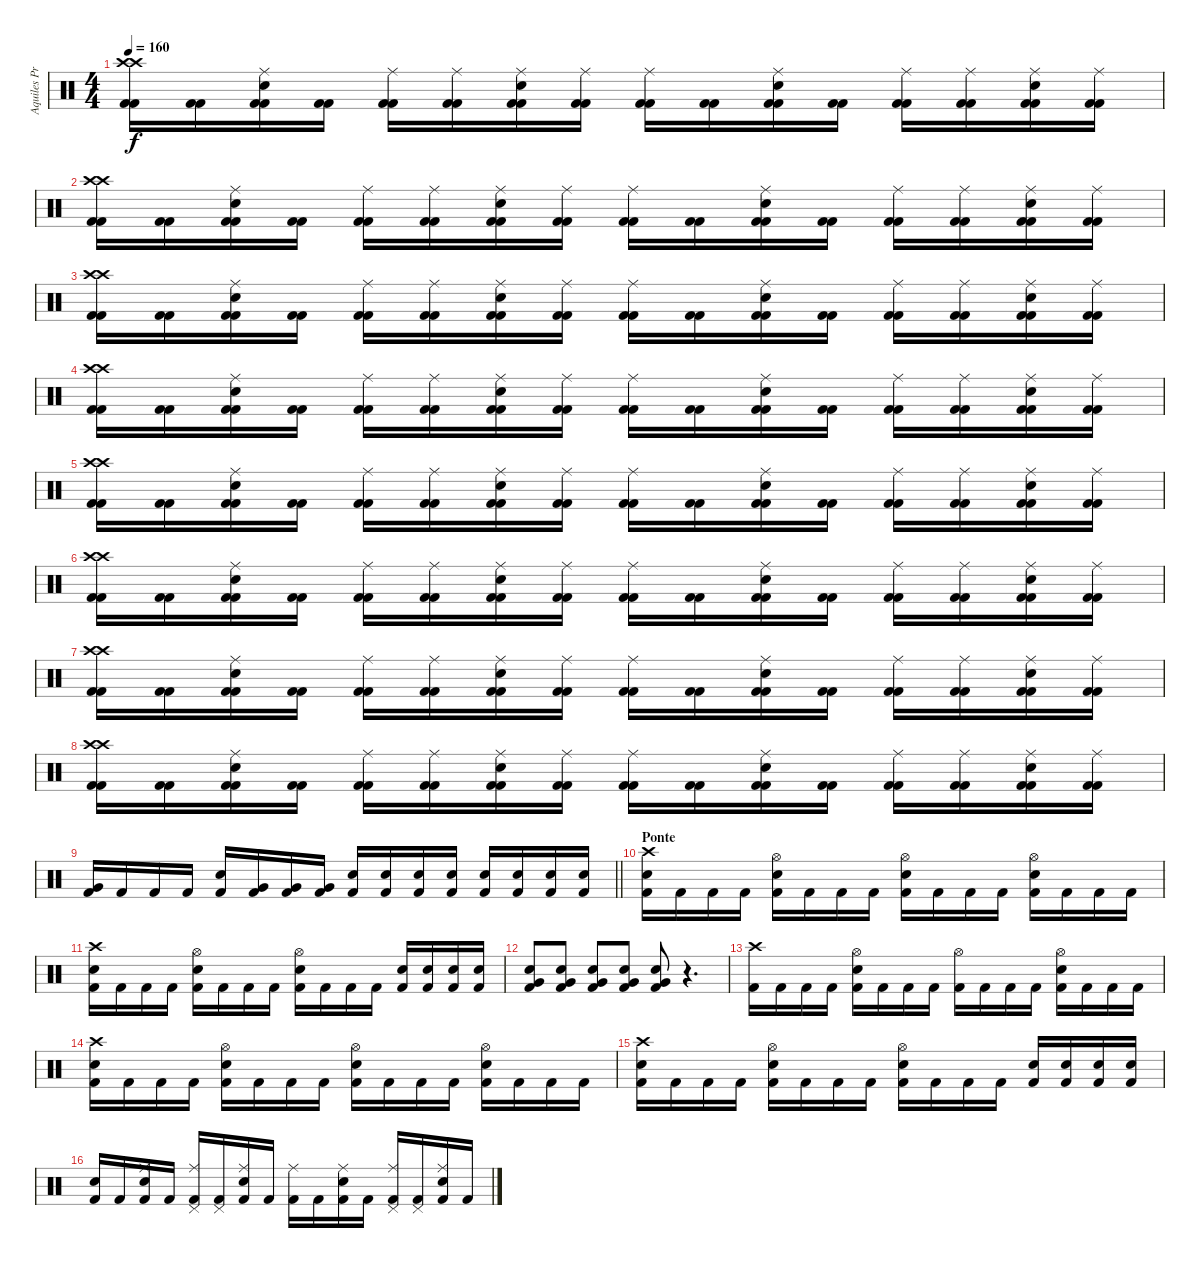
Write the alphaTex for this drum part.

\track ("Aquiles Priester" "Aquiles Pr") {instrument percussion}
\staff {score}
\articulation defaults
\ts (4 4)
\tempo 160
\clef neutral
\ks c
("Crash high (hit)" "Crash high (hit)" "Kick (hit) 2" "Kick (hit) 2").16{dy f} ("Kick (hit) 2" "Kick (hit) 2").16 ("Ride (middle)" "Snare (hit) 2" "Kick (hit) 2" "Kick (hit) 2").16 ("Kick (hit) 2" "Kick (hit) 2").16 ("Ride (middle)" "Kick (hit) 2" "Kick (hit) 2").16 ("Ride (middle)" "Kick (hit) 2" "Kick (hit) 2").16 ("Ride (middle)" "Snare (hit) 2" "Kick (hit) 2" "Kick (hit) 2").16 ("Ride (middle)" "Kick (hit) 2" "Kick (hit) 2").16 ("Ride (middle)" "Kick (hit) 2" "Kick (hit) 2").16 ("Kick (hit) 2" "Kick (hit) 2").16 ("Ride (middle)" "Snare (hit) 2" "Kick (hit) 2" "Kick (hit) 2").16 ("Kick (hit) 2" "Kick (hit) 2").16 ("Ride (middle)" "Kick (hit) 2" "Kick (hit) 2").16 ("Ride (middle)" "Kick (hit) 2" "Kick (hit) 2").16 ("Ride (middle)" "Snare (hit) 2" "Kick (hit) 2" "Kick (hit) 2").16 ("Ride (middle)" "Kick (hit) 2" "Kick (hit) 2").16 |
("Crash high (hit)" "Crash high (hit)" "Kick (hit) 2" "Kick (hit) 2").16 ("Kick (hit) 2" "Kick (hit) 2").16 ("Ride (middle)" "Snare (hit) 2" "Kick (hit) 2" "Kick (hit) 2").16 ("Kick (hit) 2" "Kick (hit) 2").16 ("Ride (middle)" "Kick (hit) 2" "Kick (hit) 2").16 ("Ride (middle)" "Kick (hit) 2" "Kick (hit) 2").16 ("Ride (middle)" "Snare (hit) 2" "Kick (hit) 2" "Kick (hit) 2").16 ("Ride (middle)" "Kick (hit) 2" "Kick (hit) 2").16 ("Ride (middle)" "Kick (hit) 2" "Kick (hit) 2").16 ("Kick (hit) 2" "Kick (hit) 2").16 ("Ride (middle)" "Snare (hit) 2" "Kick (hit) 2" "Kick (hit) 2").16 ("Kick (hit) 2" "Kick (hit) 2").16 ("Ride (middle)" "Kick (hit) 2" "Kick (hit) 2").16 ("Ride (middle)" "Kick (hit) 2" "Kick (hit) 2").16 ("Ride (middle)" "Snare (hit) 2" "Kick (hit) 2" "Kick (hit) 2").16 ("Ride (middle)" "Kick (hit) 2" "Kick (hit) 2").16 |
("Crash high (hit)" "Crash high (hit)" "Kick (hit) 2" "Kick (hit) 2").16 ("Kick (hit) 2" "Kick (hit) 2").16 ("Ride (middle)" "Snare (hit) 2" "Kick (hit) 2" "Kick (hit) 2").16 ("Kick (hit) 2" "Kick (hit) 2").16 ("Ride (middle)" "Kick (hit) 2" "Kick (hit) 2").16 ("Ride (middle)" "Kick (hit) 2" "Kick (hit) 2").16 ("Ride (middle)" "Snare (hit) 2" "Kick (hit) 2" "Kick (hit) 2").16 ("Ride (middle)" "Kick (hit) 2" "Kick (hit) 2").16 ("Ride (middle)" "Kick (hit) 2" "Kick (hit) 2").16 ("Kick (hit) 2" "Kick (hit) 2").16 ("Ride (middle)" "Snare (hit) 2" "Kick (hit) 2" "Kick (hit) 2").16 ("Kick (hit) 2" "Kick (hit) 2").16 ("Ride (middle)" "Kick (hit) 2" "Kick (hit) 2").16 ("Ride (middle)" "Kick (hit) 2" "Kick (hit) 2").16 ("Ride (middle)" "Snare (hit) 2" "Kick (hit) 2" "Kick (hit) 2").16 ("Ride (middle)" "Kick (hit) 2" "Kick (hit) 2").16 |
("Crash high (hit)" "Crash high (hit)" "Kick (hit) 2" "Kick (hit) 2").16 ("Kick (hit) 2" "Kick (hit) 2").16 ("Ride (middle)" "Snare (hit) 2" "Kick (hit) 2" "Kick (hit) 2").16 ("Kick (hit) 2" "Kick (hit) 2").16 ("Ride (middle)" "Kick (hit) 2" "Kick (hit) 2").16 ("Ride (middle)" "Kick (hit) 2" "Kick (hit) 2").16 ("Ride (middle)" "Snare (hit) 2" "Kick (hit) 2" "Kick (hit) 2").16 ("Ride (middle)" "Kick (hit) 2" "Kick (hit) 2").16 ("Ride (middle)" "Kick (hit) 2" "Kick (hit) 2").16 ("Kick (hit) 2" "Kick (hit) 2").16 ("Ride (middle)" "Snare (hit) 2" "Kick (hit) 2" "Kick (hit) 2").16 ("Kick (hit) 2" "Kick (hit) 2").16 ("Ride (middle)" "Kick (hit) 2" "Kick (hit) 2").16 ("Ride (middle)" "Kick (hit) 2" "Kick (hit) 2").16 ("Ride (middle)" "Snare (hit) 2" "Kick (hit) 2" "Kick (hit) 2").16 ("Ride (middle)" "Kick (hit) 2" "Kick (hit) 2").16 |
("Crash high (hit)" "Crash high (hit)" "Kick (hit) 2" "Kick (hit) 2").16 ("Kick (hit) 2" "Kick (hit) 2").16 ("Ride (middle)" "Snare (hit) 2" "Kick (hit) 2" "Kick (hit) 2").16 ("Kick (hit) 2" "Kick (hit) 2").16 ("Ride (middle)" "Kick (hit) 2" "Kick (hit) 2").16 ("Ride (middle)" "Kick (hit) 2" "Kick (hit) 2").16 ("Ride (middle)" "Snare (hit) 2" "Kick (hit) 2" "Kick (hit) 2").16 ("Ride (middle)" "Kick (hit) 2" "Kick (hit) 2").16 ("Ride (middle)" "Kick (hit) 2" "Kick (hit) 2").16 ("Kick (hit) 2" "Kick (hit) 2").16 ("Ride (middle)" "Snare (hit) 2" "Kick (hit) 2" "Kick (hit) 2").16 ("Kick (hit) 2" "Kick (hit) 2").16 ("Ride (middle)" "Kick (hit) 2" "Kick (hit) 2").16 ("Ride (middle)" "Kick (hit) 2" "Kick (hit) 2").16 ("Ride (middle)" "Snare (hit) 2" "Kick (hit) 2" "Kick (hit) 2").16 ("Ride (middle)" "Kick (hit) 2" "Kick (hit) 2").16 |
("Crash high (hit)" "Crash high (hit)" "Kick (hit) 2" "Kick (hit) 2").16 ("Kick (hit) 2" "Kick (hit) 2").16 ("Ride (middle)" "Snare (hit) 2" "Kick (hit) 2" "Kick (hit) 2").16 ("Kick (hit) 2" "Kick (hit) 2").16 ("Ride (middle)" "Kick (hit) 2" "Kick (hit) 2").16 ("Ride (middle)" "Kick (hit) 2" "Kick (hit) 2").16 ("Ride (middle)" "Snare (hit) 2" "Kick (hit) 2" "Kick (hit) 2").16 ("Ride (middle)" "Kick (hit) 2" "Kick (hit) 2").16 ("Ride (middle)" "Kick (hit) 2" "Kick (hit) 2").16 ("Kick (hit) 2" "Kick (hit) 2").16 ("Ride (middle)" "Snare (hit) 2" "Kick (hit) 2" "Kick (hit) 2").16 ("Kick (hit) 2" "Kick (hit) 2").16 ("Ride (middle)" "Kick (hit) 2" "Kick (hit) 2").16 ("Ride (middle)" "Kick (hit) 2" "Kick (hit) 2").16 ("Ride (middle)" "Snare (hit) 2" "Kick (hit) 2" "Kick (hit) 2").16 ("Ride (middle)" "Kick (hit) 2" "Kick (hit) 2").16 |
("Crash high (hit)" "Crash high (hit)" "Kick (hit) 2" "Kick (hit) 2").16 ("Kick (hit) 2" "Kick (hit) 2").16 ("Ride (middle)" "Snare (hit) 2" "Kick (hit) 2" "Kick (hit) 2").16 ("Kick (hit) 2" "Kick (hit) 2").16 ("Ride (middle)" "Kick (hit) 2" "Kick (hit) 2").16 ("Ride (middle)" "Kick (hit) 2" "Kick (hit) 2").16 ("Ride (middle)" "Snare (hit) 2" "Kick (hit) 2" "Kick (hit) 2").16 ("Ride (middle)" "Kick (hit) 2" "Kick (hit) 2").16 ("Ride (middle)" "Kick (hit) 2" "Kick (hit) 2").16 ("Kick (hit) 2" "Kick (hit) 2").16 ("Ride (middle)" "Snare (hit) 2" "Kick (hit) 2" "Kick (hit) 2").16 ("Kick (hit) 2" "Kick (hit) 2").16 ("Ride (middle)" "Kick (hit) 2" "Kick (hit) 2").16 ("Ride (middle)" "Kick (hit) 2" "Kick (hit) 2").16 ("Ride (middle)" "Snare (hit) 2" "Kick (hit) 2" "Kick (hit) 2").16 ("Ride (middle)" "Kick (hit) 2" "Kick (hit) 2").16 |
("Crash high (hit)" "Crash high (hit)" "Kick (hit) 2" "Kick (hit) 2").16 ("Kick (hit) 2" "Kick (hit) 2").16 ("Ride (middle)" "Snare (hit) 2" "Kick (hit) 2" "Kick (hit) 2").16 ("Kick (hit) 2" "Kick (hit) 2").16 ("Ride (middle)" "Kick (hit) 2" "Kick (hit) 2").16 ("Ride (middle)" "Kick (hit) 2" "Kick (hit) 2").16 ("Ride (middle)" "Snare (hit) 2" "Kick (hit) 2" "Kick (hit) 2").16 ("Ride (middle)" "Kick (hit) 2" "Kick (hit) 2").16 ("Ride (middle)" "Kick (hit) 2" "Kick (hit) 2").16 ("Kick (hit) 2" "Kick (hit) 2").16 ("Ride (middle)" "Snare (hit) 2" "Kick (hit) 2" "Kick (hit) 2").16 ("Kick (hit) 2" "Kick (hit) 2").16 ("Ride (middle)" "Kick (hit) 2" "Kick (hit) 2").16 ("Ride (middle)" "Kick (hit) 2" "Kick (hit) 2").16 ("Ride (middle)" "Snare (hit) 2" "Kick (hit) 2" "Kick (hit) 2").16 ("Ride (middle)" "Kick (hit) 2" "Kick (hit) 2").16 |
\barLineRight lightlight
("Very Low Tom (hit)" "Kick (hit) 2").16 "Kick (hit) 2".16 "Kick (hit) 2".16 "Kick (hit) 2".16 ("Electric Snare (hit)" "Kick (hit) 2").16 ("Very Low Tom (hit)" "Kick (hit) 2").16 ("Very Low Tom (hit)" "Kick (hit) 2").16 ("Very Low Tom (hit)" "Kick (hit) 2").16 ("Electric Snare (hit)" "Kick (hit) 2").16 ("Electric Snare (hit)" "Kick (hit) 2").16 ("Electric Snare (hit)" "Kick (hit) 2").16 ("Electric Snare (hit)" "Kick (hit) 2").16 ("Electric Snare (hit)" "Kick (hit) 2").16 ("Electric Snare (hit)" "Kick (hit) 2").16 ("Electric Snare (hit)" "Kick (hit) 2").16 ("Electric Snare (hit)" "Kick (hit) 2").16 |
\section ("" "Ponte")
("Crash high (hit)" "Electric Snare (hit)" "Kick (hit) 2").16 "Kick (hit) 2".16 "Kick (hit) 2".16 "Kick (hit) 2".16 ("Hi-Hat (open)" "Electric Snare (hit)" "Kick (hit) 2").16 "Kick (hit) 2".16 "Kick (hit) 2".16 "Kick (hit) 2".16 ("Hi-Hat (open)" "Electric Snare (hit)" "Kick (hit) 2").16 "Kick (hit) 2".16 "Kick (hit) 2".16 "Kick (hit) 2".16 ("Hi-Hat (open)" "Electric Snare (hit)" "Kick (hit) 2").16 "Kick (hit) 2".16 "Kick (hit) 2".16 "Kick (hit) 2".16 |
("Crash high (hit)" "Electric Snare (hit)" "Kick (hit) 2").16 "Kick (hit) 2".16 "Kick (hit) 2".16 "Kick (hit) 2".16 ("Hi-Hat (open)" "Electric Snare (hit)" "Kick (hit) 2").16 "Kick (hit) 2".16 "Kick (hit) 2".16 "Kick (hit) 2".16 ("Hi-Hat (open)" "Electric Snare (hit)" "Kick (hit) 2").16 "Kick (hit) 2".16 "Kick (hit) 2".16 "Kick (hit) 2".16 ("Electric Snare (hit)" "Kick (hit) 2").16 ("Electric Snare (hit)" "Kick (hit) 2").16 ("Electric Snare (hit)" "Kick (hit) 2").16 ("Electric Snare (hit)" "Kick (hit) 2").16 |
("Very Low Tom (hit)" "Electric Snare (hit)" "Kick (hit) 2").8 ("Very Low Tom (hit)" "Electric Snare (hit)" "Kick (hit) 2").8 ("Very Low Tom (hit)" "Electric Snare (hit)" "Kick (hit) 2").8 ("Very Low Tom (hit)" "Electric Snare (hit)" "Kick (hit) 2").8 ("Very Low Tom (hit)" "Electric Snare (hit)" "Kick (hit) 2").8 r.4{d} |
("Crash high (hit)" "Kick (hit) 2").16 "Kick (hit) 2".16 "Kick (hit) 2".16 "Kick (hit) 2".16 ("Hi-Hat (open)" "Electric Snare (hit)" "Kick (hit) 2").16 "Kick (hit) 2".16 "Kick (hit) 2".16 "Kick (hit) 2".16 ("Hi-Hat (open)" "Kick (hit) 2").16 "Kick (hit) 2".16 "Kick (hit) 2".16 "Kick (hit) 2".16 ("Hi-Hat (open)" "Electric Snare (hit)" "Kick (hit) 2").16 "Kick (hit) 2".16 "Kick (hit) 2".16 "Kick (hit) 2".16 |
("Crash high (hit)" "Electric Snare (hit)" "Kick (hit) 2").16 "Kick (hit) 2".16 "Kick (hit) 2".16 "Kick (hit) 2".16 ("Hi-Hat (open)" "Electric Snare (hit)" "Kick (hit) 2").16 "Kick (hit) 2".16 "Kick (hit) 2".16 "Kick (hit) 2".16 ("Hi-Hat (open)" "Electric Snare (hit)" "Kick (hit) 2").16 "Kick (hit) 2".16 "Kick (hit) 2".16 "Kick (hit) 2".16 ("Hi-Hat (open)" "Electric Snare (hit)" "Kick (hit) 2").16 "Kick (hit) 2".16 "Kick (hit) 2".16 "Kick (hit) 2".16 |
("Crash high (hit)" "Electric Snare (hit)" "Kick (hit) 2").16 "Kick (hit) 2".16 "Kick (hit) 2".16 "Kick (hit) 2".16 ("Hi-Hat (open)" "Electric Snare (hit)" "Kick (hit) 2").16 "Kick (hit) 2".16 "Kick (hit) 2".16 "Kick (hit) 2".16 ("Hi-Hat (open)" "Electric Snare (hit)" "Kick (hit) 2").16 "Kick (hit) 2".16 "Kick (hit) 2".16 "Kick (hit) 2".16 ("Electric Snare (hit)" "Kick (hit) 2").16 ("Electric Snare (hit)" "Kick (hit) 2").16 ("Electric Snare (hit)" "Kick (hit) 2").16 ("Electric Snare (hit)" "Kick (hit) 2").16 |
("Electric Snare (hit)" "Kick (hit) 2").16 "Kick (hit) 2".16 ("Ride (middle)" "Electric Snare (hit)" "Kick (hit) 2").16 "Kick (hit) 2".16 ("Ride (middle)" "Pedal Hi-Hat (hit)" "Kick (hit) 2").16 ("Pedal Hi-Hat (hit)" "Kick (hit) 2").16 ("Ride (middle)" "Electric Snare (hit)" "Kick (hit) 2").16 "Kick (hit) 2".16 ("Ride (middle)" "Kick (hit) 2").16 "Kick (hit) 2".16 ("Ride (middle)" "Electric Snare (hit)" "Kick (hit) 2").16 "Kick (hit) 2".16 ("Ride (middle)" "Pedal Hi-Hat (hit)" "Kick (hit) 2").16 ("Pedal Hi-Hat (hit)" "Kick (hit) 2").16 ("Ride (middle)" "Electric Snare (hit)" "Kick (hit) 2").16 "Kick (hit) 2".16
